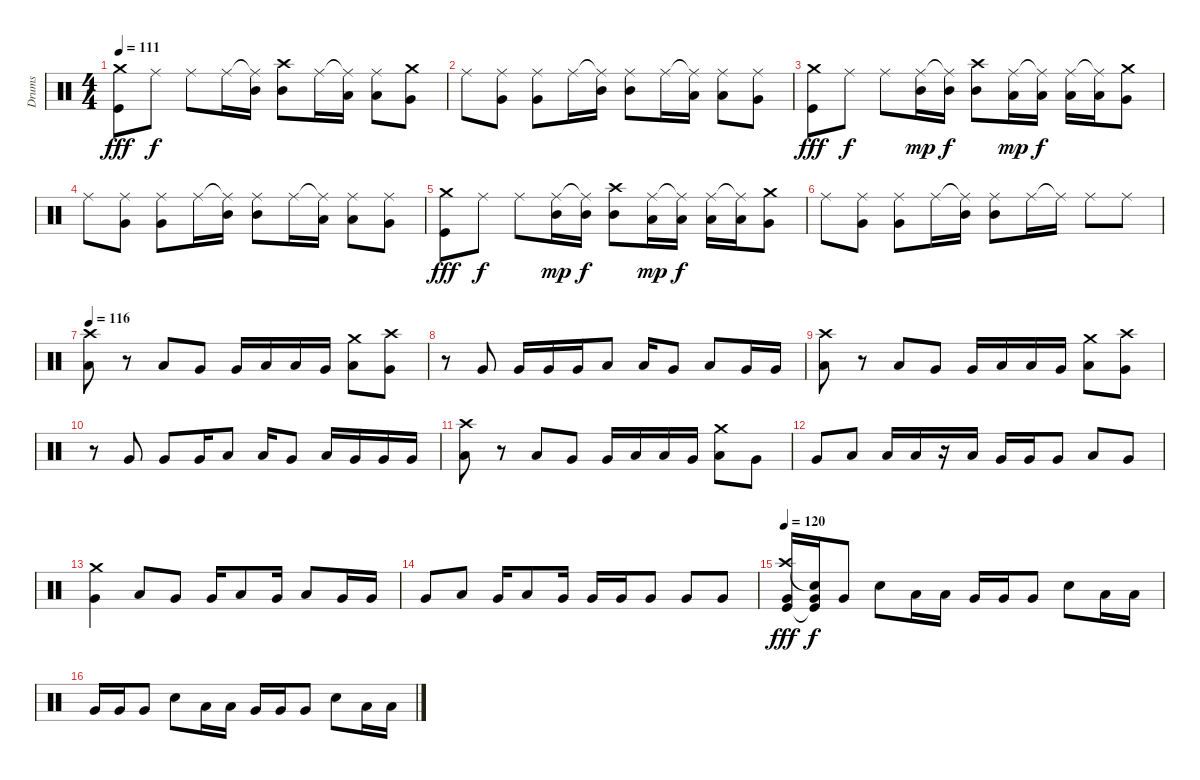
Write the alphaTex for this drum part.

\track ("Drums" "Drums") {instrument percussion}
\staff {score}
\articulation defaults
\ts (4 4)
\tempo 111
\clef neutral
\ks c
("Crash medium (hit)" "Kick (hit)").8{dy fff} "Ride (middle)".8{dy f} "Ride (middle)".8 "Ride (middle)".16 ("Ride (middle)"{t} "Mid Tom (hit)").16 ("Crash high (hit)" "Mid Tom (hit)").8 "Ride (middle)".16 ("Ride (middle)"{t} "Low Tom (hit)").16 ("Ride (middle)" "Low Tom (hit)").8 ("Crash medium (hit)" "Very Low Tom (hit)").8 |
"Ride (middle)".8 ("Ride (middle)" "Very Low Tom (hit)").8 ("Ride (middle)" "Very Low Tom (hit)").8 "Ride (middle)".16 ("Ride (middle)"{t} "Mid Tom (hit)").16 ("Ride (middle)" "Mid Tom (hit)").8 "Ride (middle)".16 ("Ride (middle)"{t} "Low Tom (hit)").16 ("Ride (middle)" "Low Tom (hit)").8 ("Ride (middle)" "Very Low Tom (hit)").8 |
("Crash medium (hit)" "Kick (hit)").8{dy fff} "Ride (middle)".8{dy f} "Ride (middle)".8 ("Ride (middle)" "Mid Tom (hit)").16{dy mp} ("Ride (middle)"{t} "Mid Tom (hit)").16{dy f} ("Crash high (hit)" "Mid Tom (hit)").8 ("Ride (middle)" "Low Tom (hit)").16{dy mp} ("Ride (middle)"{t} "Low Tom (hit)").16{dy f} ("Ride (middle)" "Low Tom (hit)").16 ("Ride (middle)"{t} "Low Tom (hit)").16 ("Crash medium (hit)" "Very Low Tom (hit)").8 |
"Ride (middle)".8 ("Ride (middle)" "Very Low Tom (hit)").8 ("Ride (middle)" "Very Low Tom (hit)").8 "Ride (middle)".16 ("Ride (middle)"{t} "Mid Tom (hit)").16 ("Ride (middle)" "Mid Tom (hit)").8 "Ride (middle)".16 ("Ride (middle)"{t} "Low Tom (hit)").16 ("Ride (middle)" "Low Tom (hit)").8 ("Ride (middle)" "Very Low Tom (hit)").8 |
("Crash medium (hit)" "Kick (hit)").8{dy fff} "Ride (middle)".8{dy f} "Ride (middle)".8 ("Ride (middle)" "Mid Tom (hit)").16{dy mp} ("Ride (middle)"{t} "Mid Tom (hit)").16{dy f} ("Crash high (hit)" "Mid Tom (hit)").8 ("Ride (middle)" "Low Tom (hit)").16{dy mp} ("Ride (middle)"{t} "Low Tom (hit)").16{dy f} ("Ride (middle)" "Low Tom (hit)").16 ("Ride (middle)"{t} "Low Tom (hit)").16 ("Crash medium (hit)" "Very Low Tom (hit)").8 |
"Ride (middle)".8 ("Ride (middle)" "Very Low Tom (hit)").8 ("Ride (middle)" "Very Low Tom (hit)").8 "Ride (middle)".16 ("Ride (middle)"{t} "Mid Tom (hit)").16 ("Ride (middle)" "Mid Tom (hit)").8 "Ride (middle)".16 "Ride (middle)"{t}.16 "Ride (middle)".8 "Ride (middle)".8 |
\tempo 116
("Crash high (hit)" "Low Tom (hit)").8 r.8 "Low Tom (hit)".8 "Very Low Tom (hit)".8 "Very Low Tom (hit)".16 "Low Tom (hit)".16 "Low Tom (hit)".16 "Very Low Tom (hit)".16 ("Crash medium (hit)" "Low Tom (hit)").8 ("Crash high (hit)" "Very Low Tom (hit)").8 |
r.8 "Very Low Tom (hit)".8 "Very Low Tom (hit)".16 "Very Low Tom (hit)".16 "Very Low Tom (hit)".16 "Low Tom (hit)".8 "Low Tom (hit)".16 "Very Low Tom (hit)".8 "Low Tom (hit)".8 "Very Low Tom (hit)".16 "Very Low Tom (hit)".16 |
("Crash high (hit)" "Low Tom (hit)").8 r.8 "Low Tom (hit)".8 "Very Low Tom (hit)".8 "Very Low Tom (hit)".16 "Low Tom (hit)".16 "Low Tom (hit)".16 "Very Low Tom (hit)".16 ("Crash medium (hit)" "Low Tom (hit)").8 ("Crash high (hit)" "Very Low Tom (hit)").8 |
r.8 "Very Low Tom (hit)".8 "Very Low Tom (hit)".8 "Very Low Tom (hit)".16 "Low Tom (hit)".8 "Low Tom (hit)".16 "Very Low Tom (hit)".8 "Low Tom (hit)".16 "Very Low Tom (hit)".16 "Very Low Tom (hit)".16 "Very Low Tom (hit)".16 |
("Crash high (hit)" "Low Tom (hit)").8 r.8 "Low Tom (hit)".8 "Very Low Tom (hit)".8 "Very Low Tom (hit)".16 "Low Tom (hit)".16 "Low Tom (hit)".16 "Very Low Tom (hit)".16 ("Crash medium (hit)" "Low Tom (hit)").8 "Very Low Tom (hit)".8 |
"Very Low Tom (hit)".8 "Low Tom (hit)".8 "Low Tom (hit)".16 "Low Tom (hit)".16 r.16 "Low Tom (hit)".16 "Very Low Tom (hit)".16 "Very Low Tom (hit)".16 "Very Low Tom (hit)".8 "Low Tom (hit)".8 "Very Low Tom (hit)".8 |
("Crash medium (hit)" "Very Low Tom (hit)").4 "Low Tom (hit)".8 "Very Low Tom (hit)".8 "Very Low Tom (hit)".16 "Low Tom (hit)".8 "Very Low Tom (hit)".16 "Low Tom (hit)".8 "Very Low Tom (hit)".16 "Very Low Tom (hit)".16 |
"Very Low Tom (hit)".8 "Low Tom (hit)".8 "Very Low Tom (hit)".16 "Low Tom (hit)".8 "Very Low Tom (hit)".16 "Very Low Tom (hit)".16 "Very Low Tom (hit)".16 "Very Low Tom (hit)".8 "Very Low Tom (hit)".8 "Very Low Tom (hit)".8 |
\tempo 120
("Crash high (hit)" "Very Low Tom (hit)" "Kick (hit)").16{dy fff} ("Snare (hit)"{t} "Very Low Tom (hit)" "Kick (hit)"{t}).16{dy f} "Very Low Tom (hit)".8 "Snare (hit) 2".8 "Low Tom (hit)".16 "Low Tom (hit)".16 "Very Low Tom (hit)".16 "Very Low Tom (hit)".16 "Very Low Tom (hit)".8 "Snare (hit) 2".8 "Low Tom (hit)".16 "Low Tom (hit)".16 |
"Very Low Tom (hit)".16 "Very Low Tom (hit)".16 "Very Low Tom (hit)".8 "Snare (hit) 2".8 "Low Tom (hit)".16 "Low Tom (hit)".16 "Very Low Tom (hit)".16 "Very Low Tom (hit)".16 "Very Low Tom (hit)".8 "Snare (hit) 2".8 "Low Tom (hit)".16 "Low Tom (hit)".16
